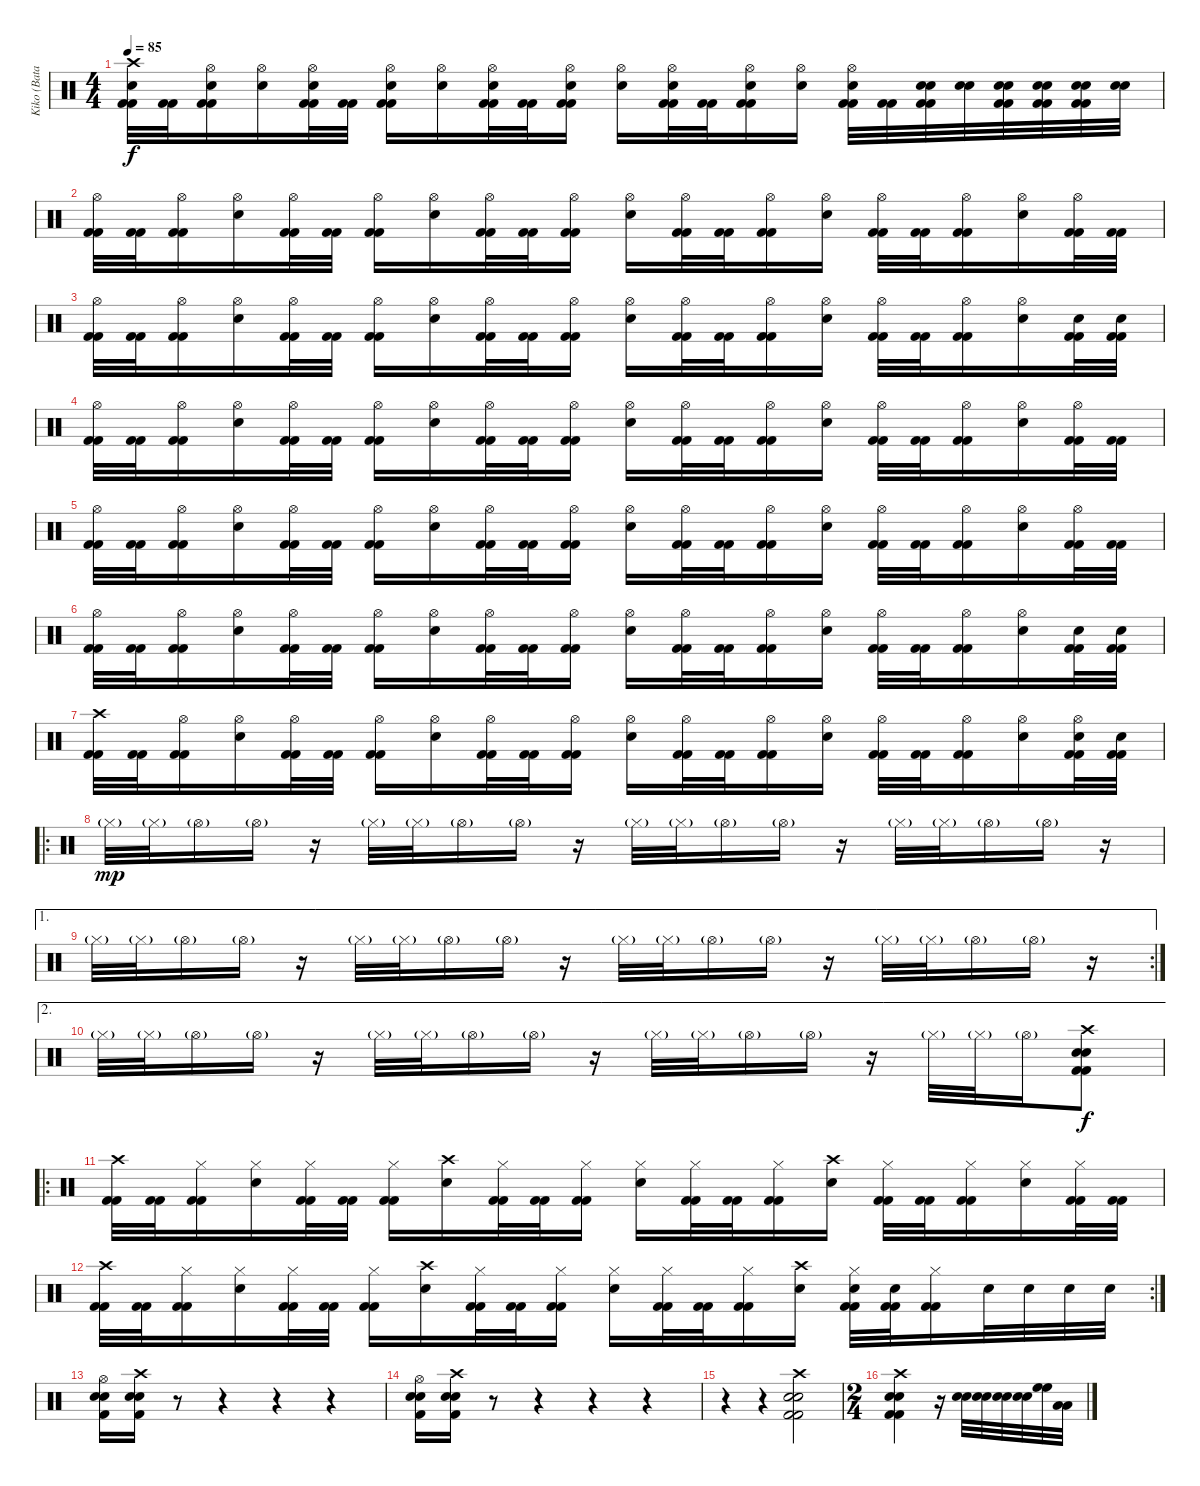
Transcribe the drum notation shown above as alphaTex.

\track ("Kiko (Bataca)" "Kiko (Bata") {instrument percussion}
\staff {score}
\articulation defaults
\ts (4 4)
\tempo 85
\clef neutral
\ks c
("Crash high (hit)" "Electric Snare (hit)" "Kick (hit) 2" "Kick (hit) 2").32{dy f} ("Kick (hit) 2" "Kick (hit) 2").32 ("Hi-Hat (open)" "Electric Snare (hit)" "Kick (hit) 2" "Kick (hit) 2").16 ("Hi-Hat (open)" "Electric Snare (hit)").16 ("Hi-Hat (open)" "Electric Snare (hit)" "Kick (hit) 2" "Kick (hit) 2").32 ("Kick (hit) 2" "Kick (hit) 2").32 ("Hi-Hat (open)" "Electric Snare (hit)" "Kick (hit) 2" "Kick (hit) 2").16 ("Hi-Hat (open)" "Electric Snare (hit)").16 ("Hi-Hat (open)" "Electric Snare (hit)" "Kick (hit) 2" "Kick (hit) 2").32 ("Kick (hit) 2" "Kick (hit) 2").32 ("Hi-Hat (open)" "Electric Snare (hit)" "Kick (hit) 2" "Kick (hit) 2").16 ("Hi-Hat (open)" "Electric Snare (hit)").16 ("Hi-Hat (open)" "Electric Snare (hit)" "Kick (hit) 2" "Kick (hit) 2").32 ("Kick (hit) 2" "Kick (hit) 2").32 ("Hi-Hat (open)" "Electric Snare (hit)" "Kick (hit) 2" "Kick (hit) 2").16 ("Hi-Hat (open)" "Electric Snare (hit)").16 ("Hi-Hat (open)" "Electric Snare (hit)" "Kick (hit) 2" "Kick (hit) 2").32 ("Kick (hit) 2" "Kick (hit) 2").32 ("Electric Snare (hit)" "Electric Snare (hit)" "Kick (hit) 2" "Kick (hit) 2").32 ("Electric Snare (hit)" "Electric Snare (hit)").32 ("Electric Snare (hit)" "Electric Snare (hit)" "Kick (hit) 2" "Kick (hit) 2").32 ("Electric Snare (hit)" "Electric Snare (hit)" "Kick (hit) 2" "Kick (hit) 2").32 ("Electric Snare (hit)" "Electric Snare (hit)" "Kick (hit) 2" "Kick (hit) 2").32 ("Electric Snare (hit)" "Electric Snare (hit)").32 |
("Hi-Hat (open)" "Kick (hit) 2" "Kick (hit) 2").32 ("Kick (hit) 2" "Kick (hit) 2").32 ("Hi-Hat (open)" "Kick (hit) 2" "Kick (hit) 2").16 ("Hi-Hat (open)" "Electric Snare (hit)").16 ("Hi-Hat (open)" "Kick (hit) 2" "Kick (hit) 2").32 ("Kick (hit) 2" "Kick (hit) 2").32 ("Hi-Hat (open)" "Kick (hit) 2" "Kick (hit) 2").16 ("Hi-Hat (open)" "Electric Snare (hit)").16 ("Hi-Hat (open)" "Kick (hit) 2" "Kick (hit) 2").32 ("Kick (hit) 2" "Kick (hit) 2").32 ("Hi-Hat (open)" "Kick (hit) 2" "Kick (hit) 2").16 ("Hi-Hat (open)" "Electric Snare (hit)").16 ("Hi-Hat (open)" "Kick (hit) 2" "Kick (hit) 2").32 ("Kick (hit) 2" "Kick (hit) 2").32 ("Hi-Hat (open)" "Kick (hit) 2" "Kick (hit) 2").16 ("Hi-Hat (open)" "Electric Snare (hit)").16 ("Hi-Hat (open)" "Kick (hit) 2" "Kick (hit) 2").32 ("Kick (hit) 2" "Kick (hit) 2").32 ("Hi-Hat (open)" "Kick (hit) 2" "Kick (hit) 2").16 ("Hi-Hat (open)" "Electric Snare (hit)").16 ("Hi-Hat (open)" "Kick (hit) 2" "Kick (hit) 2").32 ("Kick (hit) 2" "Kick (hit) 2").32 |
("Hi-Hat (open)" "Kick (hit) 2" "Kick (hit) 2").32 ("Kick (hit) 2" "Kick (hit) 2").32 ("Hi-Hat (open)" "Kick (hit) 2" "Kick (hit) 2").16 ("Hi-Hat (open)" "Electric Snare (hit)").16 ("Hi-Hat (open)" "Kick (hit) 2" "Kick (hit) 2").32 ("Kick (hit) 2" "Kick (hit) 2").32 ("Hi-Hat (open)" "Kick (hit) 2" "Kick (hit) 2").16 ("Hi-Hat (open)" "Electric Snare (hit)").16 ("Hi-Hat (open)" "Kick (hit) 2" "Kick (hit) 2").32 ("Kick (hit) 2" "Kick (hit) 2").32 ("Hi-Hat (open)" "Kick (hit) 2" "Kick (hit) 2").16 ("Hi-Hat (open)" "Electric Snare (hit)").16 ("Hi-Hat (open)" "Kick (hit) 2" "Kick (hit) 2").32 ("Kick (hit) 2" "Kick (hit) 2").32 ("Hi-Hat (open)" "Kick (hit) 2" "Kick (hit) 2").16 ("Hi-Hat (open)" "Electric Snare (hit)").16 ("Hi-Hat (open)" "Kick (hit) 2" "Kick (hit) 2").32 ("Kick (hit) 2" "Kick (hit) 2").32 ("Hi-Hat (open)" "Kick (hit) 2" "Kick (hit) 2").16 ("Hi-Hat (open)" "Electric Snare (hit)").16 ("Electric Snare (hit)" "Kick (hit) 2" "Kick (hit) 2").32 ("Electric Snare (hit)" "Kick (hit) 2" "Kick (hit) 2").32 |
("Hi-Hat (open)" "Kick (hit) 2" "Kick (hit) 2").32 ("Kick (hit) 2" "Kick (hit) 2").32 ("Hi-Hat (open)" "Kick (hit) 2" "Kick (hit) 2").16 ("Hi-Hat (open)" "Electric Snare (hit)").16 ("Hi-Hat (open)" "Kick (hit) 2" "Kick (hit) 2").32 ("Kick (hit) 2" "Kick (hit) 2").32 ("Hi-Hat (open)" "Kick (hit) 2" "Kick (hit) 2").16 ("Hi-Hat (open)" "Electric Snare (hit)").16 ("Hi-Hat (open)" "Kick (hit) 2" "Kick (hit) 2").32 ("Kick (hit) 2" "Kick (hit) 2").32 ("Hi-Hat (open)" "Kick (hit) 2" "Kick (hit) 2").16 ("Hi-Hat (open)" "Electric Snare (hit)").16 ("Hi-Hat (open)" "Kick (hit) 2" "Kick (hit) 2").32 ("Kick (hit) 2" "Kick (hit) 2").32 ("Hi-Hat (open)" "Kick (hit) 2" "Kick (hit) 2").16 ("Hi-Hat (open)" "Electric Snare (hit)").16 ("Hi-Hat (open)" "Kick (hit) 2" "Kick (hit) 2").32 ("Kick (hit) 2" "Kick (hit) 2").32 ("Hi-Hat (open)" "Kick (hit) 2" "Kick (hit) 2").16 ("Hi-Hat (open)" "Electric Snare (hit)").16 ("Hi-Hat (open)" "Kick (hit) 2" "Kick (hit) 2").32 ("Kick (hit) 2" "Kick (hit) 2").32 |
("Hi-Hat (open)" "Kick (hit) 2" "Kick (hit) 2").32 ("Kick (hit) 2" "Kick (hit) 2").32 ("Hi-Hat (open)" "Kick (hit) 2" "Kick (hit) 2").16 ("Hi-Hat (open)" "Electric Snare (hit)").16 ("Hi-Hat (open)" "Kick (hit) 2" "Kick (hit) 2").32 ("Kick (hit) 2" "Kick (hit) 2").32 ("Hi-Hat (open)" "Kick (hit) 2" "Kick (hit) 2").16 ("Hi-Hat (open)" "Electric Snare (hit)").16 ("Hi-Hat (open)" "Kick (hit) 2" "Kick (hit) 2").32 ("Kick (hit) 2" "Kick (hit) 2").32 ("Hi-Hat (open)" "Kick (hit) 2" "Kick (hit) 2").16 ("Hi-Hat (open)" "Electric Snare (hit)").16 ("Hi-Hat (open)" "Kick (hit) 2" "Kick (hit) 2").32 ("Kick (hit) 2" "Kick (hit) 2").32 ("Hi-Hat (open)" "Kick (hit) 2" "Kick (hit) 2").16 ("Hi-Hat (open)" "Electric Snare (hit)").16 ("Hi-Hat (open)" "Kick (hit) 2" "Kick (hit) 2").32 ("Kick (hit) 2" "Kick (hit) 2").32 ("Hi-Hat (open)" "Kick (hit) 2" "Kick (hit) 2").16 ("Hi-Hat (open)" "Electric Snare (hit)").16 ("Hi-Hat (open)" "Kick (hit) 2" "Kick (hit) 2").32 ("Kick (hit) 2" "Kick (hit) 2").32 |
("Hi-Hat (open)" "Kick (hit) 2" "Kick (hit) 2").32 ("Kick (hit) 2" "Kick (hit) 2").32 ("Hi-Hat (open)" "Kick (hit) 2" "Kick (hit) 2").16 ("Hi-Hat (open)" "Electric Snare (hit)").16 ("Hi-Hat (open)" "Kick (hit) 2" "Kick (hit) 2").32 ("Kick (hit) 2" "Kick (hit) 2").32 ("Hi-Hat (open)" "Kick (hit) 2" "Kick (hit) 2").16 ("Hi-Hat (open)" "Electric Snare (hit)").16 ("Hi-Hat (open)" "Kick (hit) 2" "Kick (hit) 2").32 ("Kick (hit) 2" "Kick (hit) 2").32 ("Hi-Hat (open)" "Kick (hit) 2" "Kick (hit) 2").16 ("Hi-Hat (open)" "Electric Snare (hit)").16 ("Hi-Hat (open)" "Kick (hit) 2" "Kick (hit) 2").32 ("Kick (hit) 2" "Kick (hit) 2").32 ("Hi-Hat (open)" "Kick (hit) 2" "Kick (hit) 2").16 ("Hi-Hat (open)" "Electric Snare (hit)").16 ("Hi-Hat (open)" "Kick (hit) 2" "Kick (hit) 2").32 ("Kick (hit) 2" "Kick (hit) 2").32 ("Hi-Hat (open)" "Kick (hit) 2" "Kick (hit) 2").16 ("Hi-Hat (open)" "Electric Snare (hit)").16 ("Electric Snare (hit)" "Kick (hit) 2" "Kick (hit) 2").32 ("Electric Snare (hit)" "Kick (hit) 2" "Kick (hit) 2").32 |
("Crash high (hit)" "Kick (hit) 2" "Kick (hit) 2").32 ("Kick (hit) 2" "Kick (hit) 2").32 ("Hi-Hat (open)" "Kick (hit) 2" "Kick (hit) 2").16 ("Hi-Hat (open)" "Electric Snare (hit)").16 ("Hi-Hat (open)" "Kick (hit) 2" "Kick (hit) 2").32 ("Kick (hit) 2" "Kick (hit) 2").32 ("Hi-Hat (open)" "Kick (hit) 2" "Kick (hit) 2").16 ("Hi-Hat (open)" "Electric Snare (hit)").16 ("Hi-Hat (open)" "Kick (hit) 2" "Kick (hit) 2").32 ("Kick (hit) 2" "Kick (hit) 2").32 ("Hi-Hat (open)" "Kick (hit) 2" "Kick (hit) 2").16 ("Hi-Hat (open)" "Electric Snare (hit)").16 ("Hi-Hat (open)" "Kick (hit) 2" "Kick (hit) 2").32 ("Kick (hit) 2" "Kick (hit) 2").32 ("Hi-Hat (open)" "Kick (hit) 2" "Kick (hit) 2").16 ("Hi-Hat (open)" "Electric Snare (hit)").16 ("Hi-Hat (open)" "Kick (hit) 2" "Kick (hit) 2").32 ("Kick (hit) 2" "Kick (hit) 2").32 ("Hi-Hat (open)" "Kick (hit) 2" "Kick (hit) 2").16 ("Hi-Hat (open)" "Electric Snare (hit)").16 ("Hi-Hat (open)" "Electric Snare (hit)" "Kick (hit) 2" "Kick (hit) 2").32 ("Electric Snare (hit)" "Kick (hit) 2" "Kick (hit) 2").32 |
\ro "Hi-Hat (closed)"{g}.32{dy mp} "Hi-Hat (closed)"{g}.32 "Hi-Hat (open)"{g}.16 "Hi-Hat (open)"{g}.16
r.16 "Hi-Hat (closed)"{g}.32 "Hi-Hat (closed)"{g}.32 "Hi-Hat (open)"{g}.16 "Hi-Hat (open)"{g}.16 r.16 "Hi-Hat (closed)"{g}.32 "Hi-Hat (closed)"{g}.32 "Hi-Hat (open)"{g}.16 "Hi-Hat (open)"{g}.16 r.16 "Hi-Hat (closed)"{g}.32 "Hi-Hat (closed)"{g}.32 "Hi-Hat (open)"{g}.16 "Hi-Hat (open)"{g}.16 r.16 |
\ae 1
\rc 2 "Hi-Hat (closed)"{g}.32 "Hi-Hat (closed)"{g}.32 "Hi-Hat (open)"{g}.16 "Hi-Hat (open)"{g}.16
r.16 "Hi-Hat (closed)"{g}.32 "Hi-Hat (closed)"{g}.32 "Hi-Hat (open)"{g}.16 "Hi-Hat (open)"{g}.16 r.16 "Hi-Hat (closed)"{g}.32 "Hi-Hat (closed)"{g}.32 "Hi-Hat (open)"{g}.16 "Hi-Hat (open)"{g}.16 r.16 "Hi-Hat (closed)"{g}.32 "Hi-Hat (closed)"{g}.32 "Hi-Hat (open)"{g}.16 "Hi-Hat (open)"{g}.16 r.16 |
\ae 2 "Hi-Hat (closed)"{g}.32 "Hi-Hat (closed)"{g}.32 "Hi-Hat (open)"{g}.16 "Hi-Hat (open)"{g}.16
r.16 "Hi-Hat (closed)"{g}.32 "Hi-Hat (closed)"{g}.32 "Hi-Hat (open)"{g}.16 "Hi-Hat (open)"{g}.16 r.16 "Hi-Hat (closed)"{g}.32 "Hi-Hat (closed)"{g}.32 "Hi-Hat (open)"{g}.16 "Hi-Hat (open)"{g}.16 r.16 "Hi-Hat (closed)"{g}.32 "Hi-Hat (closed)"{g}.32 "Hi-Hat (open)"{g}.16 ("Crash high (hit)" "Electric Snare (hit)" "Electric Snare (hit)" "Kick (hit) 2" "Kick (hit) 2").8{dy f} |
\ro
("Crash high (hit)" "Kick (hit) 2" "Kick (hit) 2").32 ("Kick (hit) 2" "Kick (hit) 2").32 ("Hi-Hat (closed)" "Kick (hit) 2" "Kick (hit) 2").16 ("Hi-Hat (closed)" "Electric Snare (hit)").16 ("Hi-Hat (closed)" "Kick (hit) 2" "Kick (hit) 2").32 ("Kick (hit) 2" "Kick (hit) 2").32 ("Hi-Hat (closed)" "Kick (hit) 2" "Kick (hit) 2").16 ("Crash high (hit)" "Electric Snare (hit)").16 ("Hi-Hat (closed)" "Kick (hit) 2" "Kick (hit) 2").32 ("Kick (hit) 2" "Kick (hit) 2").32 ("Hi-Hat (closed)" "Kick (hit) 2" "Kick (hit) 2").16 ("Hi-Hat (closed)" "Electric Snare (hit)").16 ("Hi-Hat (closed)" "Kick (hit) 2" "Kick (hit) 2").32 ("Kick (hit) 2" "Kick (hit) 2").32 ("Hi-Hat (closed)" "Kick (hit) 2" "Kick (hit) 2").16 ("Crash high (hit)" "Electric Snare (hit)").16 ("Hi-Hat (closed)" "Kick (hit) 2" "Kick (hit) 2").32 ("Kick (hit) 2" "Kick (hit) 2").32 ("Hi-Hat (closed)" "Kick (hit) 2" "Kick (hit) 2").16 ("Hi-Hat (closed)" "Electric Snare (hit)").16 ("Hi-Hat (closed)" "Kick (hit) 2" "Kick (hit) 2").32 ("Kick (hit) 2" "Kick (hit) 2").32 |
\rc 2
("Crash high (hit)" "Kick (hit) 2" "Kick (hit) 2").32 ("Kick (hit) 2" "Kick (hit) 2").32 ("Hi-Hat (closed)" "Kick (hit) 2" "Kick (hit) 2").16 ("Hi-Hat (closed)" "Electric Snare (hit)").16 ("Hi-Hat (closed)" "Kick (hit) 2" "Kick (hit) 2").32 ("Kick (hit) 2" "Kick (hit) 2").32 ("Hi-Hat (closed)" "Kick (hit) 2" "Kick (hit) 2").16 ("Crash high (hit)" "Electric Snare (hit)").16 ("Hi-Hat (closed)" "Kick (hit) 2" "Kick (hit) 2").32 ("Kick (hit) 2" "Kick (hit) 2").32 ("Hi-Hat (closed)" "Kick (hit) 2" "Kick (hit) 2").16 ("Hi-Hat (closed)" "Electric Snare (hit)").16 ("Hi-Hat (closed)" "Kick (hit) 2" "Kick (hit) 2").32 ("Kick (hit) 2" "Kick (hit) 2").32 ("Hi-Hat (closed)" "Kick (hit) 2" "Kick (hit) 2").16 ("Crash high (hit)" "Electric Snare (hit)").16 ("Hi-Hat (closed)" "Electric Snare (hit)" "Kick (hit) 2" "Kick (hit) 2").32 ("Electric Snare (hit)" "Kick (hit) 2" "Kick (hit) 2").32 ("Hi-Hat (closed)" "Kick (hit) 2" "Kick (hit) 2").16 "Electric Snare (hit)".32 "Electric Snare (hit)".32 "Electric Snare (hit)".32 "Electric Snare (hit)".32 |
("Hi-Hat (open)" "Electric Snare (hit)" "Electric Snare (hit)" "Kick (hit) 2").16 ("Crash high (hit)" "Electric Snare (hit)" "Electric Snare (hit)" "Kick (hit) 2").16 r.8 r.4 r.4 r.4 |
("Hi-Hat (open)" "Electric Snare (hit)" "Electric Snare (hit)" "Kick (hit) 2").16 ("Crash high (hit)" "Electric Snare (hit)" "Electric Snare (hit)" "Kick (hit) 2").16 r.8 r.4 r.4 r.4 |
r.4 r.4 ("Crash high (hit)" "Electric Snare (hit)" "Electric Snare (hit)" "Kick (hit) 2" "Kick (hit) 2").2 |
\ts (2 4)
("Crash high (hit)" "Electric Snare (hit)" "Electric Snare (hit)" "Kick (hit) 2" "Kick (hit) 2").4 r.16 ("Electric Snare (hit)" "Electric Snare (hit)").32 ("Electric Snare (hit)" "Electric Snare (hit)").32 ("Electric Snare (hit)" "Electric Snare (hit)").32 ("Electric Snare (hit)" "Electric Snare (hit)").32 ("High Floor Tom (hit)" "High Floor Tom (hit)").32 ("Low Tom (hit)" "Low Tom (hit)").32
